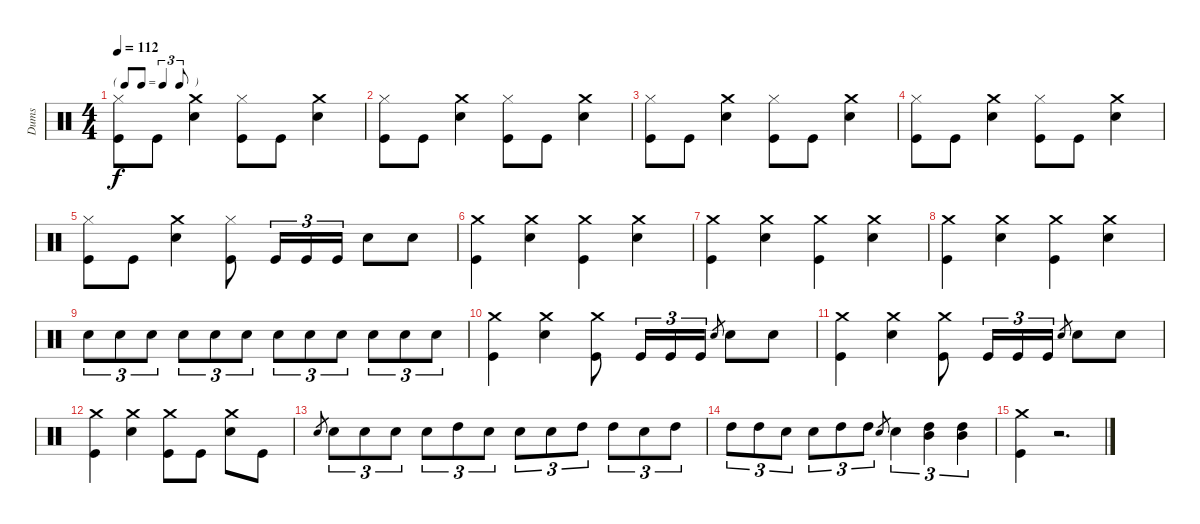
\track ("Dums" "Dums") {instrument percussion}
\staff {score}
\articulation defaults
\ts (4 4)
\tf triplet8th
\tempo 112
\clef neutral
\ks c
("Kick (hit)" "Hi-Hat (closed)").8{dy f} "Kick (hit)".8 ("Electric Snare (hit)" "Crash medium (hit)").4 ("Kick (hit)" "Hi-Hat (closed)").8 "Kick (hit)".8 ("Electric Snare (hit)" "Crash medium (hit)").4 |
("Kick (hit)" "Hi-Hat (closed)").8 "Kick (hit)".8 ("Electric Snare (hit)" "Crash medium (hit)").4 ("Kick (hit)" "Hi-Hat (closed)").8 "Kick (hit)".8 ("Electric Snare (hit)" "Crash medium (hit)").4 |
("Kick (hit)" "Hi-Hat (closed)").8 "Kick (hit)".8 ("Electric Snare (hit)" "Crash medium (hit)").4 ("Kick (hit)" "Hi-Hat (closed)").8 "Kick (hit)".8 ("Electric Snare (hit)" "Crash medium (hit)").4 |
("Kick (hit)" "Hi-Hat (closed)").8 "Kick (hit)".8 ("Electric Snare (hit)" "Crash medium (hit)").4 ("Kick (hit)" "Hi-Hat (closed)").8 "Kick (hit)".8 ("Electric Snare (hit)" "Crash medium (hit)").4 |
("Kick (hit)" "Hi-Hat (closed)").8 "Kick (hit)".8 ("Electric Snare (hit)" "Crash medium (hit)").4 ("Kick (hit)" "Hi-Hat (closed)").8 "Kick (hit)".16{tu (3 2)} "Kick (hit)".16{tu (3 2)} "Kick (hit)".16{tu (3 2)} "Electric Snare (hit)".8 "Electric Snare (hit)".8 |
("Kick (hit)" "Crash medium (hit)").4 ("Electric Snare (hit)" "Crash medium (hit)").4 ("Kick (hit)" "Crash medium (hit)").4 ("Electric Snare (hit)" "Crash medium (hit)").4 |
("Kick (hit)" "Crash medium (hit)").4 ("Electric Snare (hit)" "Crash medium (hit)").4 ("Kick (hit)" "Crash medium (hit)").4 ("Electric Snare (hit)" "Crash medium (hit)").4 |
("Kick (hit)" "Crash medium (hit)").4 ("Electric Snare (hit)" "Crash medium (hit)").4 ("Kick (hit)" "Crash medium (hit)").4 ("Electric Snare (hit)" "Crash medium (hit)").4 |
"Electric Snare (hit)".8{tu (3 2)} "Electric Snare (hit)".8{tu (3 2)} "Electric Snare (hit)".8{tu (3 2)} "Electric Snare (hit)".8{tu (3 2)} "Electric Snare (hit)".8{tu (3 2)} "Electric Snare (hit)".8{tu (3 2)} "Electric Snare (hit)".8{tu (3 2)} "Electric Snare (hit)".8{tu (3 2)} "Electric Snare (hit)".8{tu (3 2)} "Electric Snare (hit)".8{tu (3 2)} "Electric Snare (hit)".8{tu (3 2)} "Electric Snare (hit)".8{tu (3 2)} |
("Kick (hit)" "Crash medium (hit)").4 ("Electric Snare (hit)" "Crash medium (hit)").4 ("Kick (hit)" "Crash medium (hit)").8 "Kick (hit)".16{tu (3 2)} "Kick (hit)".16{tu (3 2)} "Kick (hit)".16{tu (3 2)} "Electric Snare (hit)".8{gr} "Electric Snare (hit)".8 "Electric Snare (hit)".8 |
("Kick (hit)" "Crash medium (hit)").4 ("Electric Snare (hit)" "Crash medium (hit)").4 ("Kick (hit)" "Crash medium (hit)").8 "Kick (hit)".16{tu (3 2)} "Kick (hit)".16{tu (3 2)} "Kick (hit)".16{tu (3 2)} "Electric Snare (hit)".8{gr} "Electric Snare (hit)".8 "Electric Snare (hit)".8 |
("Kick (hit)" "Crash medium (hit)").4 ("Electric Snare (hit)" "Crash medium (hit)").4 ("Kick (hit)" "Crash medium (hit)").8 "Kick (hit)".8 ("Electric Snare (hit)" "Crash medium (hit)").8 "Kick (hit)".8 |
"Electric Snare (hit)".8{gr} "Electric Snare (hit)".8{tu (3 2)} "Electric Snare (hit)".8{tu (3 2)} "Electric Snare (hit)".8{tu (3 2)} "Electric Snare (hit)".8{tu (3 2)} "High Tom (hit)".8{tu (3 2)} "Electric Snare (hit)".8{tu (3 2)} "Electric Snare (hit)".8{tu (3 2)} "Electric Snare (hit)".8{tu (3 2)} "High Tom (hit)".8{tu (3 2)} "High Tom (hit)".8{tu (3 2)} "Electric Snare (hit)".8{tu (3 2)} "High Tom (hit)".8{tu (3 2)} |
"High Tom (hit)".8{tu (3 2)} "High Tom (hit)".8{tu (3 2)} "Electric Snare (hit)".8{tu (3 2)} "Electric Snare (hit)".8{tu (3 2)} "High Tom (hit)".8{tu (3 2)} "High Tom (hit)".8{tu (3 2)} "Electric Snare (hit)".8{gr} "Electric Snare (hit)".4{tu (3 2)} ("High Tom (hit)" "Mid Tom (hit)").4{tu (3 2)} ("High Tom (hit)" "Mid Tom (hit)").4{tu (3 2)} |
("Kick (hit)" "Crash medium (hit)").4 r.2{d}
